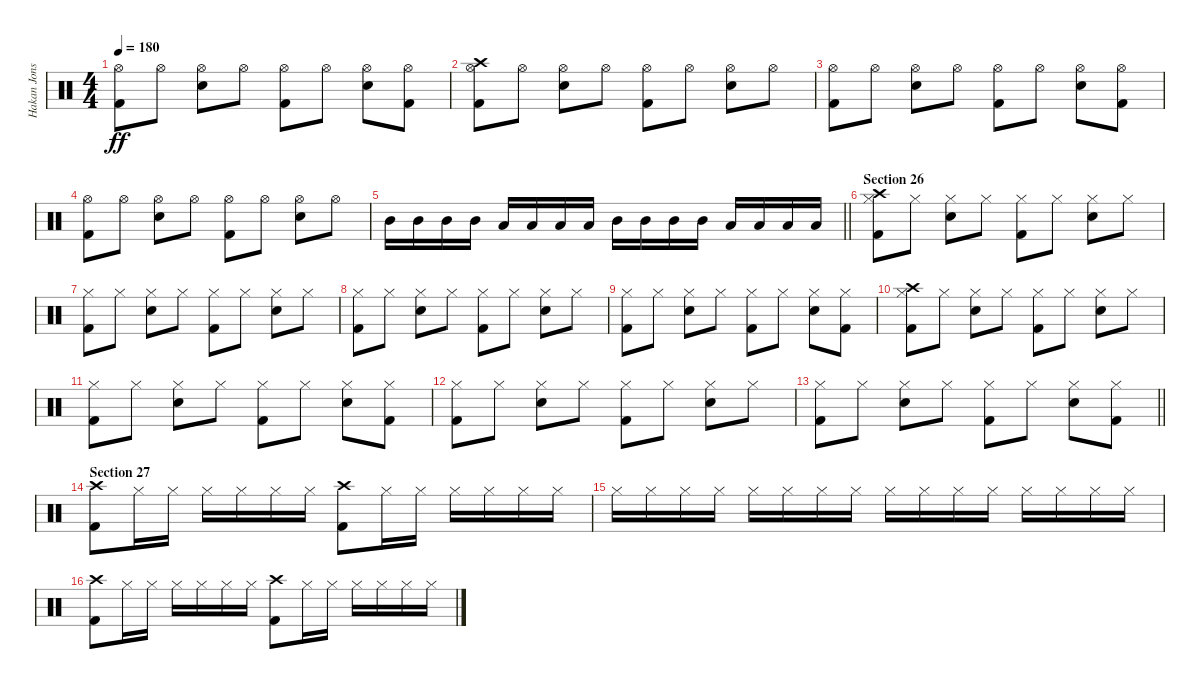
\track ("Hakan Jonsson" "Hakan Jons") {instrument percussion}
\staff {score}
\articulation defaults
\ts (4 4)
\tempo 180
\clef neutral
\ks c
("Hi-Hat (open)" "Kick (hit) 2").8{dy ff} "Hi-Hat (open)".8 ("Hi-Hat (open)" "Electric Snare (hit)").8 "Hi-Hat (open)".8 ("Hi-Hat (open)" "Kick (hit) 2").8 "Hi-Hat (open)".8 ("Hi-Hat (open)" "Electric Snare (hit)").8 ("Hi-Hat (open)" "Kick (hit) 2").8 |
("Crash high (hit)" "Hi-Hat (open)" "Kick (hit) 2").8 "Hi-Hat (open)".8 ("Hi-Hat (open)" "Electric Snare (hit)").8 "Hi-Hat (open)".8 ("Hi-Hat (open)" "Kick (hit) 2").8 "Hi-Hat (open)".8 ("Hi-Hat (open)" "Electric Snare (hit)").8 "Hi-Hat (open)".8 |
("Hi-Hat (open)" "Kick (hit) 2").8 "Hi-Hat (open)".8 ("Hi-Hat (open)" "Electric Snare (hit)").8 "Hi-Hat (open)".8 ("Hi-Hat (open)" "Kick (hit) 2").8 "Hi-Hat (open)".8 ("Hi-Hat (open)" "Electric Snare (hit)").8 ("Hi-Hat (open)" "Kick (hit) 2").8 |
("Hi-Hat (open)" "Kick (hit) 2").8 "Hi-Hat (open)".8 ("Hi-Hat (open)" "Electric Snare (hit)").8 "Hi-Hat (open)".8 ("Hi-Hat (open)" "Kick (hit) 2").8 "Hi-Hat (open)".8 ("Hi-Hat (open)" "Electric Snare (hit)").8 "Hi-Hat (open)".8 |
\barLineRight lightlight "Mid Tom (hit)".16 "Mid Tom (hit)".16 "Mid Tom (hit)".16 "Mid Tom (hit)".16 "Low Tom (hit)".16 "Low Tom (hit)".16 "Low Tom (hit)".16 "Low Tom (hit)".16 "Mid Tom (hit)".16 "Mid Tom (hit)".16 "Mid Tom (hit)".16 "Mid Tom (hit)".16 "Low Tom (hit)".16 "Low Tom (hit)".16 "Low Tom (hit)".16 "Low Tom (hit)".16
|
\section ("" "Section 26")
("Crash high (hit)" "Hi-Hat (closed)" "Kick (hit) 2").8 "Hi-Hat (closed)".8 ("Hi-Hat (closed)" "Electric Snare (hit)").8 "Hi-Hat (closed)".8 ("Hi-Hat (closed)" "Kick (hit) 2").8 "Hi-Hat (closed)".8 ("Hi-Hat (closed)" "Electric Snare (hit)").8 "Hi-Hat (closed)".8 |
("Hi-Hat (closed)" "Kick (hit) 2").8 "Hi-Hat (closed)".8 ("Hi-Hat (closed)" "Electric Snare (hit)").8 "Hi-Hat (closed)".8 ("Hi-Hat (closed)" "Kick (hit) 2").8 "Hi-Hat (closed)".8 ("Hi-Hat (closed)" "Electric Snare (hit)").8 "Hi-Hat (closed)".8 |
("Hi-Hat (closed)" "Kick (hit) 2").8 "Hi-Hat (closed)".8 ("Hi-Hat (closed)" "Electric Snare (hit)").8 "Hi-Hat (closed)".8 ("Hi-Hat (closed)" "Kick (hit) 2").8 "Hi-Hat (closed)".8 ("Hi-Hat (closed)" "Electric Snare (hit)").8 "Hi-Hat (closed)".8 |
("Hi-Hat (closed)" "Kick (hit) 2").8 "Hi-Hat (closed)".8 ("Hi-Hat (closed)" "Electric Snare (hit)").8 "Hi-Hat (closed)".8 ("Hi-Hat (closed)" "Kick (hit) 2").8 "Hi-Hat (closed)".8 ("Hi-Hat (closed)" "Electric Snare (hit)").8 ("Hi-Hat (closed)" "Kick (hit) 2").8 |
("Crash high (hit)" "Hi-Hat (closed)" "Kick (hit) 2").8 "Hi-Hat (closed)".8 ("Hi-Hat (closed)" "Electric Snare (hit)").8 "Hi-Hat (closed)".8 ("Hi-Hat (closed)" "Kick (hit) 2").8 "Hi-Hat (closed)".8 ("Hi-Hat (closed)" "Electric Snare (hit)").8 "Hi-Hat (closed)".8 |
("Hi-Hat (closed)" "Kick (hit) 2").8 "Hi-Hat (closed)".8 ("Hi-Hat (closed)" "Electric Snare (hit)").8 "Hi-Hat (closed)".8 ("Hi-Hat (closed)" "Kick (hit) 2").8 "Hi-Hat (closed)".8 ("Hi-Hat (closed)" "Electric Snare (hit)").8 ("Hi-Hat (closed)" "Kick (hit) 2").8 |
("Hi-Hat (closed)" "Kick (hit) 2").8 "Hi-Hat (closed)".8 ("Hi-Hat (closed)" "Electric Snare (hit)").8 "Hi-Hat (closed)".8 ("Hi-Hat (closed)" "Kick (hit) 2").8 "Hi-Hat (closed)".8 ("Hi-Hat (closed)" "Electric Snare (hit)").8 "Hi-Hat (closed)".8 |
\barLineRight lightlight
("Hi-Hat (closed)" "Kick (hit) 2").8 "Hi-Hat (closed)".8 ("Hi-Hat (closed)" "Electric Snare (hit)").8 "Hi-Hat (closed)".8 ("Hi-Hat (closed)" "Kick (hit) 2").8 "Hi-Hat (closed)".8 ("Hi-Hat (closed)" "Electric Snare (hit)").8 ("Hi-Hat (closed)" "Kick (hit) 2").8 |
\section ("" "Section 27")
("Crash high (hit)" "Kick (hit) 2").8 "Hi-Hat (closed)".16 "Hi-Hat (closed)".16 "Hi-Hat (closed)".16 "Hi-Hat (closed)".16 "Hi-Hat (closed)".16 "Hi-Hat (closed)".16 ("Crash high (hit)" "Kick (hit) 2").8 "Hi-Hat (closed)".16 "Hi-Hat (closed)".16 "Hi-Hat (closed)".16 "Hi-Hat (closed)".16 "Hi-Hat (closed)".16 "Hi-Hat (closed)".16 |
"Hi-Hat (closed)".16 "Hi-Hat (closed)".16 "Hi-Hat (closed)".16 "Hi-Hat (closed)".16 "Hi-Hat (closed)".16 "Hi-Hat (closed)".16 "Hi-Hat (closed)".16 "Hi-Hat (closed)".16 "Hi-Hat (closed)".16 "Hi-Hat (closed)".16 "Hi-Hat (closed)".16 "Hi-Hat (closed)".16 "Hi-Hat (closed)".16 "Hi-Hat (closed)".16 "Hi-Hat (closed)".16 "Hi-Hat (closed)".16 |
("Crash high (hit)" "Kick (hit) 2").8 "Hi-Hat (closed)".16 "Hi-Hat (closed)".16 "Hi-Hat (closed)".16 "Hi-Hat (closed)".16 "Hi-Hat (closed)".16 "Hi-Hat (closed)".16 ("Crash high (hit)" "Kick (hit) 2").8 "Hi-Hat (closed)".16 "Hi-Hat (closed)".16 "Hi-Hat (closed)".16 "Hi-Hat (closed)".16 "Hi-Hat (closed)".16 "Hi-Hat (closed)".16
